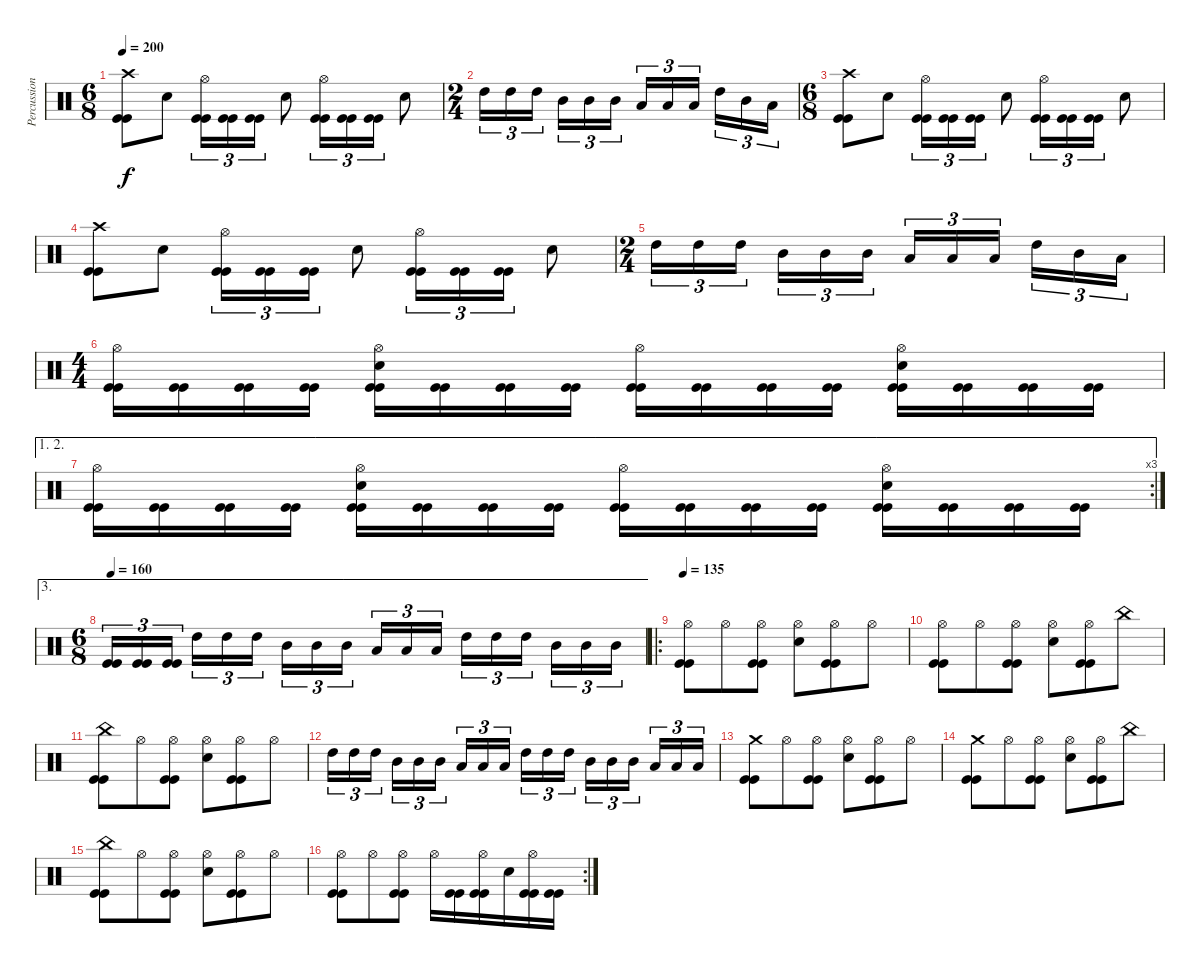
\track ("Percussion" "Percussion") {instrument percussion}
\staff {score}
\articulation defaults
\ts (6 8)
\tempo 200
\clef neutral
\ks c
("Crash high (hit)" "Kick (hit)" "Kick (hit)").8{dy f} "Snare (hit) 2".8 ("Hi-Hat (open)" "Kick (hit)" "Kick (hit)").16{tu (3 2)} ("Kick (hit)" "Kick (hit)").16{tu (3 2)} ("Kick (hit)" "Kick (hit)").16{tu (3 2)} "Snare (hit) 2".8 ("Hi-Hat (open)" "Kick (hit)" "Kick (hit)").16{tu (3 2)} ("Kick (hit)" "Kick (hit)").16{tu (3 2)} ("Kick (hit)" "Kick (hit)").16{tu (3 2)} "Snare (hit) 2".8 |
\ts (2 4)
"High Tom (hit)".16{tu (3 2)} "High Tom (hit)".16{tu (3 2)} "High Tom (hit)".16{tu (3 2)} "Mid Tom (hit)".16{tu (3 2)} "Mid Tom (hit)".16{tu (3 2)} "Mid Tom (hit)".16{tu (3 2)} "Low Tom (hit)".16{tu (3 2)} "Low Tom (hit)".16{tu (3 2)} "Low Tom (hit)".16{tu (3 2)} "High Tom (hit)".16{tu (3 2)} "Mid Tom (hit)".16{tu (3 2)} "Low Tom (hit)".16{tu (3 2)} |
\ts (6 8)
("Crash high (hit)" "Kick (hit)" "Kick (hit)").8 "Snare (hit) 2".8 ("Hi-Hat (open)" "Kick (hit)" "Kick (hit)").16{tu (3 2)} ("Kick (hit)" "Kick (hit)").16{tu (3 2)} ("Kick (hit)" "Kick (hit)").16{tu (3 2)} "Snare (hit) 2".8 ("Hi-Hat (open)" "Kick (hit)" "Kick (hit)").16{tu (3 2)} ("Kick (hit)" "Kick (hit)").16{tu (3 2)} ("Kick (hit)" "Kick (hit)").16{tu (3 2)} "Snare (hit) 2".8 |
("Crash high (hit)" "Kick (hit)" "Kick (hit)").8 "Snare (hit) 2".8 ("Hi-Hat (open)" "Kick (hit)" "Kick (hit)").16{tu (3 2)} ("Kick (hit)" "Kick (hit)").16{tu (3 2)} ("Kick (hit)" "Kick (hit)").16{tu (3 2)} "Snare (hit) 2".8 ("Hi-Hat (open)" "Kick (hit)" "Kick (hit)").16{tu (3 2)} ("Kick (hit)" "Kick (hit)").16{tu (3 2)} ("Kick (hit)" "Kick (hit)").16{tu (3 2)} "Snare (hit) 2".8 |
\ts (2 4)
"High Tom (hit)".16{tu (3 2)} "High Tom (hit)".16{tu (3 2)} "High Tom (hit)".16{tu (3 2)} "Mid Tom (hit)".16{tu (3 2)} "Mid Tom (hit)".16{tu (3 2)} "Mid Tom (hit)".16{tu (3 2)} "Low Tom (hit)".16{tu (3 2)} "Low Tom (hit)".16{tu (3 2)} "Low Tom (hit)".16{tu (3 2)} "High Tom (hit)".16{tu (3 2)} "Mid Tom (hit)".16{tu (3 2)} "Low Tom (hit)".16{tu (3 2)} |
\ts (4 4)
("Hi-Hat (open)" "Kick (hit)" "Kick (hit)").16 ("Kick (hit)" "Kick (hit)").16 ("Kick (hit)" "Kick (hit)").16 ("Kick (hit)" "Kick (hit)").16 ("Hi-Hat (open)" "Snare (hit) 2" "Kick (hit)" "Kick (hit)").16 ("Kick (hit)" "Kick (hit)").16 ("Kick (hit)" "Kick (hit)").16 ("Kick (hit)" "Kick (hit)").16 ("Hi-Hat (open)" "Kick (hit)" "Kick (hit)").16 ("Kick (hit)" "Kick (hit)").16 ("Kick (hit)" "Kick (hit)").16 ("Kick (hit)" "Kick (hit)").16 ("Hi-Hat (open)" "Snare (hit) 2" "Kick (hit)" "Kick (hit)").16 ("Kick (hit)" "Kick (hit)").16 ("Kick (hit)" "Kick (hit)").16 ("Kick (hit)" "Kick (hit)").16 |
\ae (1 2)
\rc 3
("Hi-Hat (open)" "Kick (hit)" "Kick (hit)").16 ("Kick (hit)" "Kick (hit)").16 ("Kick (hit)" "Kick (hit)").16 ("Kick (hit)" "Kick (hit)").16 ("Hi-Hat (open)" "Snare (hit) 2" "Kick (hit)" "Kick (hit)").16 ("Kick (hit)" "Kick (hit)").16 ("Kick (hit)" "Kick (hit)").16 ("Kick (hit)" "Kick (hit)").16 ("Hi-Hat (open)" "Kick (hit)" "Kick (hit)").16 ("Kick (hit)" "Kick (hit)").16 ("Kick (hit)" "Kick (hit)").16 ("Kick (hit)" "Kick (hit)").16 ("Hi-Hat (open)" "Snare (hit) 2" "Kick (hit)" "Kick (hit)").16 ("Kick (hit)" "Kick (hit)").16 ("Kick (hit)" "Kick (hit)").16 ("Kick (hit)" "Kick (hit)").16 |
\ae 3
\ts (6 8)
\tempo 160
("Kick (hit)" "Kick (hit)").16{tu (3 2)} ("Kick (hit)" "Kick (hit)").16{tu (3 2)} ("Kick (hit)" "Kick (hit)").16{tu (3 2)} "High Tom (hit)".16{tu (3 2)} "High Tom (hit)".16{tu (3 2)} "High Tom (hit)".16{tu (3 2)} "Mid Tom (hit)".16{tu (3 2)} "Mid Tom (hit)".16{tu (3 2)} "Mid Tom (hit)".16{tu (3 2)} "Low Tom (hit)".16{tu (3 2)} "Low Tom (hit)".16{tu (3 2)} "Low Tom (hit)".16{tu (3 2)} "High Tom (hit)".16{tu (3 2)} "High Tom (hit)".16{tu (3 2)} "High Tom (hit)".16{tu (3 2)} "Mid Tom (hit)".16{tu (3 2)} "Mid Tom (hit)".16{tu (3 2)} "Mid Tom (hit)".16{tu (3 2)} |
\ro
\tempo 135
("Hi-Hat (open)" "Kick (hit)" "Kick (hit)").8 "Hi-Hat (open)".8 ("Hi-Hat (open)" "Kick (hit)" "Kick (hit)").8 ("Hi-Hat (open)" "Snare (hit) 2").8 ("Hi-Hat (open)" "Kick (hit)" "Kick (hit)").8 "Hi-Hat (open)".8 |
("Hi-Hat (open)" "Kick (hit)" "Kick (hit)").8 "Hi-Hat (open)".8 ("Hi-Hat (open)" "Kick (hit)" "Kick (hit)").8 ("Hi-Hat (open)" "Snare (hit) 2").8 ("Hi-Hat (open)" "Kick (hit)" "Kick (hit)").8 "China (hit)".8 |
("China (hit)" "Kick (hit)" "Kick (hit)").8 "Hi-Hat (open)".8 ("Hi-Hat (open)" "Kick (hit)" "Kick (hit)").8 ("Hi-Hat (open)" "Snare (hit) 2").8 ("Hi-Hat (open)" "Kick (hit)" "Kick (hit)").8 "Hi-Hat (open)".8 |
"High Tom (hit)".16{tu (3 2)} "High Tom (hit)".16{tu (3 2)} "High Tom (hit)".16{tu (3 2)} "Mid Tom (hit)".16{tu (3 2)} "Mid Tom (hit)".16{tu (3 2)} "Mid Tom (hit)".16{tu (3 2)} "Low Tom (hit)".16{tu (3 2)} "Low Tom (hit)".16{tu (3 2)} "Low Tom (hit)".16{tu (3 2)} "High Tom (hit)".16{tu (3 2)} "High Tom (hit)".16{tu (3 2)} "High Tom (hit)".16{tu (3 2)} "Mid Tom (hit)".16{tu (3 2)} "Mid Tom (hit)".16{tu (3 2)} "Mid Tom (hit)".16{tu (3 2)} "Low Tom (hit)".16{tu (3 2)} "Low Tom (hit)".16{tu (3 2)} "Low Tom (hit)".16{tu (3 2)} |
("Crash medium (hit)" "Kick (hit)" "Kick (hit)").8 "Hi-Hat (open)".8 ("Hi-Hat (open)" "Kick (hit)" "Kick (hit)").8 ("Hi-Hat (open)" "Snare (hit) 2").8 ("Hi-Hat (open)" "Kick (hit)" "Kick (hit)").8 "Hi-Hat (open)".8 |
("Crash medium (hit)" "Kick (hit)" "Kick (hit)").8 "Hi-Hat (open)".8 ("Hi-Hat (open)" "Kick (hit)" "Kick (hit)").8 ("Hi-Hat (open)" "Snare (hit) 2").8 ("Hi-Hat (open)" "Kick (hit)" "Kick (hit)").8 "China (hit)".8 |
("China (hit)" "Kick (hit)" "Kick (hit)").8 "Hi-Hat (open)".8 ("Hi-Hat (open)" "Kick (hit)" "Kick (hit)").8 ("Hi-Hat (open)" "Snare (hit) 2").8 ("Hi-Hat (open)" "Kick (hit)" "Kick (hit)").8 "Hi-Hat (open)".8 |
\rc 2
("Hi-Hat (open)" "Kick (hit)" "Kick (hit)").8 "Hi-Hat (open)".8 ("Hi-Hat (open)" "Kick (hit)" "Kick (hit)").8 "Hi-Hat (open)".16 ("Kick (hit)" "Kick (hit)").16 ("Hi-Hat (open)" "Kick (hit)" "Kick (hit)").16 "Snare (hit) 2".16 ("Hi-Hat (open)" "Kick (hit)" "Kick (hit)").16 ("Kick (hit)" "Kick (hit)").16
